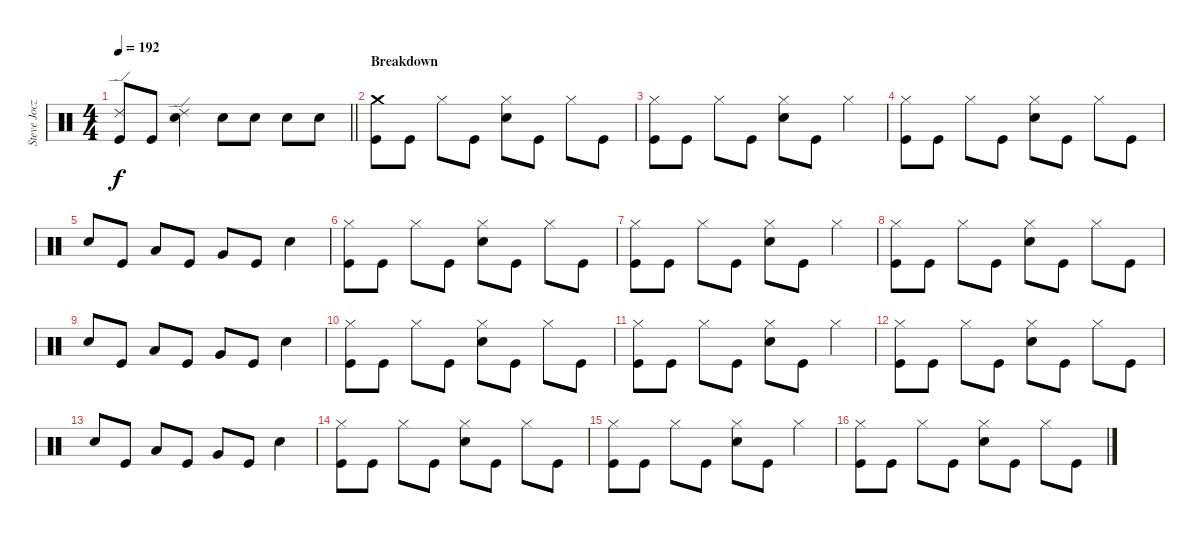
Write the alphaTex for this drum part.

\track ("Steve Jocz" "Steve Jocz") {instrument percussion}
\staff {score}
\articulation defaults
\ts (4 4)
\tempo 192
\clef neutral
\barLineRight lightlight
\ks c
("Ride (edge) 2" "Kick (hit)").8{dy f} "Kick (hit)".8 ("Ride (edge) 2" "Electric Snare (hit)").4 "Electric Snare (hit)".8 "Electric Snare (hit)".8 "Electric Snare (hit)".8 "Electric Snare (hit)".8 |
\section ("" "Breakdown")
("Crash medium (hit)" "Kick (hit)").8 "Kick (hit)".8 "Hi-Hat (closed)".8 "Kick (hit)".8 ("Hi-Hat (closed)" "Electric Snare (hit)").8 "Kick (hit)".8 "Hi-Hat (closed)".8 "Kick (hit)".8 |
("Hi-Hat (closed)" "Kick (hit)").8 "Kick (hit)".8 "Hi-Hat (closed)".8 "Kick (hit)".8 ("Hi-Hat (closed)" "Electric Snare (hit)").8 "Kick (hit)".8 "Hi-Hat (closed)".4 |
("Hi-Hat (closed)" "Kick (hit)").8 "Kick (hit)".8 "Hi-Hat (closed)".8 "Kick (hit)".8 ("Hi-Hat (closed)" "Electric Snare (hit)").8 "Kick (hit)".8 "Hi-Hat (closed)".8 "Kick (hit)".8 |
"Electric Snare (hit)".8 "Kick (hit)".8 "Low Tom (hit)".8 "Kick (hit)".8 "Very Low Tom (hit)".8 "Kick (hit)".8 "Electric Snare (hit)".4 |
("Hi-Hat (closed)" "Kick (hit)").8 "Kick (hit)".8 "Hi-Hat (closed)".8 "Kick (hit)".8 ("Hi-Hat (closed)" "Electric Snare (hit)").8 "Kick (hit)".8 "Hi-Hat (closed)".8 "Kick (hit)".8 |
("Hi-Hat (closed)" "Kick (hit)").8 "Kick (hit)".8 "Hi-Hat (closed)".8 "Kick (hit)".8 ("Hi-Hat (closed)" "Electric Snare (hit)").8 "Kick (hit)".8 "Hi-Hat (closed)".4 |
("Hi-Hat (closed)" "Kick (hit)").8 "Kick (hit)".8 "Hi-Hat (closed)".8 "Kick (hit)".8 ("Hi-Hat (closed)" "Electric Snare (hit)").8 "Kick (hit)".8 "Hi-Hat (closed)".8 "Kick (hit)".8 |
"Electric Snare (hit)".8 "Kick (hit)".8 "Low Tom (hit)".8 "Kick (hit)".8 "Very Low Tom (hit)".8 "Kick (hit)".8 "Electric Snare (hit)".4 |
("Hi-Hat (closed)" "Kick (hit)").8 "Kick (hit)".8 "Hi-Hat (closed)".8 "Kick (hit)".8 ("Hi-Hat (closed)" "Electric Snare (hit)").8 "Kick (hit)".8 "Hi-Hat (closed)".8 "Kick (hit)".8 |
("Hi-Hat (closed)" "Kick (hit)").8 "Kick (hit)".8 "Hi-Hat (closed)".8 "Kick (hit)".8 ("Hi-Hat (closed)" "Electric Snare (hit)").8 "Kick (hit)".8 "Hi-Hat (closed)".4 |
("Hi-Hat (closed)" "Kick (hit)").8 "Kick (hit)".8 "Hi-Hat (closed)".8 "Kick (hit)".8 ("Hi-Hat (closed)" "Electric Snare (hit)").8 "Kick (hit)".8 "Hi-Hat (closed)".8 "Kick (hit)".8 |
"Electric Snare (hit)".8 "Kick (hit)".8 "Low Tom (hit)".8 "Kick (hit)".8 "Very Low Tom (hit)".8 "Kick (hit)".8 "Electric Snare (hit)".4 |
("Hi-Hat (closed)" "Kick (hit)").8 "Kick (hit)".8 "Hi-Hat (closed)".8 "Kick (hit)".8 ("Hi-Hat (closed)" "Electric Snare (hit)").8 "Kick (hit)".8 "Hi-Hat (closed)".8 "Kick (hit)".8 |
("Hi-Hat (closed)" "Kick (hit)").8 "Kick (hit)".8 "Hi-Hat (closed)".8 "Kick (hit)".8 ("Hi-Hat (closed)" "Electric Snare (hit)").8 "Kick (hit)".8 "Hi-Hat (closed)".4 |
("Hi-Hat (closed)" "Kick (hit)").8 "Kick (hit)".8 "Hi-Hat (closed)".8 "Kick (hit)".8 ("Hi-Hat (closed)" "Electric Snare (hit)").8 "Kick (hit)".8 "Hi-Hat (closed)".8 "Kick (hit)".8
